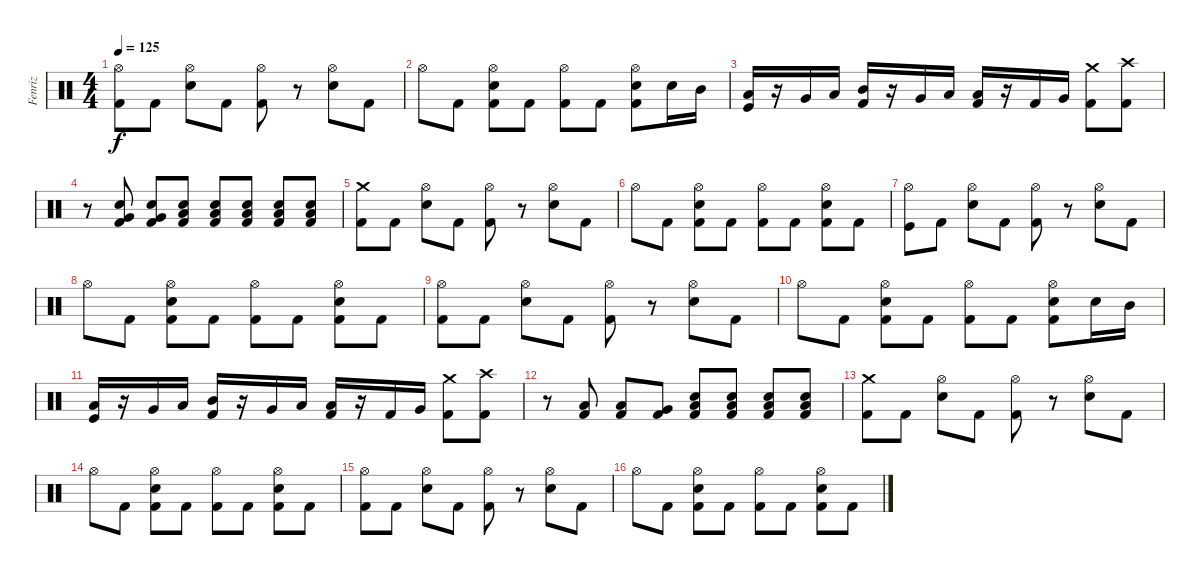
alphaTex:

\track ("Fenriz" "Fenriz") {instrument percussion}
\staff {score}
\articulation defaults
\ts (4 4)
\tempo 125
\clef neutral
\ks c
("Hi-Hat (open)" "Kick (hit) 2").8{dy f} "Kick (hit) 2".8 ("Hi-Hat (open)" "Electric Snare (hit)").8 "Kick (hit) 2".8 ("Hi-Hat (open)" "Kick (hit) 2").8 r.8 ("Electric Snare (hit)" "Hi-Hat (open)").8 "Kick (hit) 2".8 |
"Hi-Hat (open)".8 "Kick (hit) 2".8 ("Electric Snare (hit)" "Hi-Hat (open)" "Kick (hit) 2").8 "Kick (hit) 2".8 ("Hi-Hat (open)" "Kick (hit) 2").8 "Kick (hit) 2".8 ("Electric Snare (hit)" "Hi-Hat (open)" "Kick (hit) 2").8 "Snare (hit) 2".16 "Mid Tom (hit)".16 |
("Low Tom (hit)" "Kick (hit)").16 r.16 "Very Low Tom (hit)".16 "Low Tom (hit)".16 ("Mid Tom (hit)" "Kick (hit) 2").16 r.16 "Very Low Tom (hit)".16 "Low Floor Tom (hit)".16 ("Low Tom (hit)" "Kick (hit) 2").16 r.16 "Kick (hit) 2".16 "Very Low Tom (hit)".16 ("Crash medium (hit)" "Kick (hit) 2").8 ("Crash high (hit)" "Kick (hit) 2").8 |
r.8 ("Very Low Tom (hit)" "Snare (hit) 2" "Kick (hit) 2").8 ("Very Low Tom (hit)" "Snare (hit) 2" "Kick (hit) 2").8 ("Low Floor Tom (hit)" "Snare (hit) 2" "Kick (hit) 2").8 ("Low Tom (hit)" "Snare (hit) 2" "Kick (hit) 2").8 ("Low Tom (hit)" "Snare (hit) 2" "Kick (hit) 2").8 ("Low Tom (hit)" "Snare (hit) 2" "Kick (hit) 2").8 ("Low Tom (hit)" "Snare (hit) 2" "Kick (hit) 2").8 |
("Crash medium (hit)" "Kick (hit) 2").8 "Kick (hit) 2".8 ("Hi-Hat (open)" "Electric Snare (hit)").8 "Kick (hit) 2".8 ("Hi-Hat (open)" "Kick (hit) 2").8 r.8 ("Electric Snare (hit)" "Hi-Hat (open)").8 "Kick (hit) 2".8 |
"Hi-Hat (open)".8 "Kick (hit) 2".8 ("Electric Snare (hit)" "Hi-Hat (open)" "Kick (hit) 2").8 "Kick (hit) 2".8 ("Hi-Hat (open)" "Kick (hit) 2").8 "Kick (hit) 2".8 ("Electric Snare (hit)" "Hi-Hat (open)" "Kick (hit) 2").8 "Kick (hit) 2".8 |
("Hi-Hat (open)" "Kick (hit)").8 "Kick (hit) 2".8 ("Hi-Hat (open)" "Electric Snare (hit)").8 "Kick (hit) 2".8 ("Hi-Hat (open)" "Kick (hit) 2").8 r.8 ("Electric Snare (hit)" "Hi-Hat (open)").8 "Kick (hit) 2".8 |
"Hi-Hat (open)".8 "Kick (hit) 2".8 ("Electric Snare (hit)" "Hi-Hat (open)" "Kick (hit) 2").8 "Kick (hit) 2".8 ("Hi-Hat (open)" "Kick (hit) 2").8 "Kick (hit) 2".8 ("Electric Snare (hit)" "Hi-Hat (open)" "Kick (hit) 2").8 "Kick (hit) 2".8 |
("Hi-Hat (open)" "Kick (hit) 2").8 "Kick (hit) 2".8 ("Hi-Hat (open)" "Electric Snare (hit)").8 "Kick (hit) 2".8 ("Hi-Hat (open)" "Kick (hit) 2").8 r.8 ("Electric Snare (hit)" "Hi-Hat (open)").8 "Kick (hit) 2".8 |
"Hi-Hat (open)".8 "Kick (hit) 2".8 ("Electric Snare (hit)" "Hi-Hat (open)" "Kick (hit) 2").8 "Kick (hit) 2".8 ("Hi-Hat (open)" "Kick (hit) 2").8 "Kick (hit) 2".8 ("Electric Snare (hit)" "Hi-Hat (open)" "Kick (hit) 2").8 "Snare (hit) 2".16 "Mid Tom (hit)".16 |
("Low Tom (hit)" "Kick (hit)").16 r.16 "Very Low Tom (hit)".16 "Low Tom (hit)".16 ("Mid Tom (hit)" "Kick (hit) 2").16 r.16 "Very Low Tom (hit)".16 "Low Floor Tom (hit)".16 ("Low Tom (hit)" "Kick (hit) 2").16 r.16 "Kick (hit) 2".16 "Very Low Tom (hit)".16 ("Crash medium (hit)" "Kick (hit) 2").8 ("Crash high (hit)" "Kick (hit) 2").8 |
r.8 ("Low Floor Tom (hit)" "Kick (hit) 2").8 ("Low Floor Tom (hit)" "Kick (hit) 2").8 ("Very Low Tom (hit)" "Kick (hit) 2").8 ("Low Tom (hit)" "Snare (hit) 2" "Kick (hit) 2").8 ("Low Tom (hit)" "Snare (hit) 2" "Kick (hit) 2").8 ("Low Tom (hit)" "Snare (hit) 2" "Kick (hit) 2").8 ("Low Tom (hit)" "Snare (hit) 2" "Kick (hit) 2").8 |
("Crash medium (hit)" "Kick (hit) 2").8 "Kick (hit) 2".8 ("Hi-Hat (open)" "Electric Snare (hit)").8 "Kick (hit) 2".8 ("Hi-Hat (open)" "Kick (hit) 2").8 r.8 ("Electric Snare (hit)" "Hi-Hat (open)").8 "Kick (hit) 2".8 |
"Hi-Hat (open)".8 "Kick (hit) 2".8 ("Electric Snare (hit)" "Hi-Hat (open)" "Kick (hit) 2").8 "Kick (hit) 2".8 ("Hi-Hat (open)" "Kick (hit) 2").8 "Kick (hit) 2".8 ("Electric Snare (hit)" "Hi-Hat (open)" "Kick (hit) 2").8 "Kick (hit) 2".8 |
("Hi-Hat (open)" "Kick (hit) 2").8 "Kick (hit) 2".8 ("Hi-Hat (open)" "Electric Snare (hit)").8 "Kick (hit) 2".8 ("Hi-Hat (open)" "Kick (hit) 2").8 r.8 ("Electric Snare (hit)" "Hi-Hat (open)").8 "Kick (hit) 2".8 |
"Hi-Hat (open)".8 "Kick (hit) 2".8 ("Electric Snare (hit)" "Hi-Hat (open)" "Kick (hit) 2").8 "Kick (hit) 2".8 ("Hi-Hat (open)" "Kick (hit) 2").8 "Kick (hit) 2".8 ("Electric Snare (hit)" "Hi-Hat (open)" "Kick (hit) 2").8 "Kick (hit) 2".8
